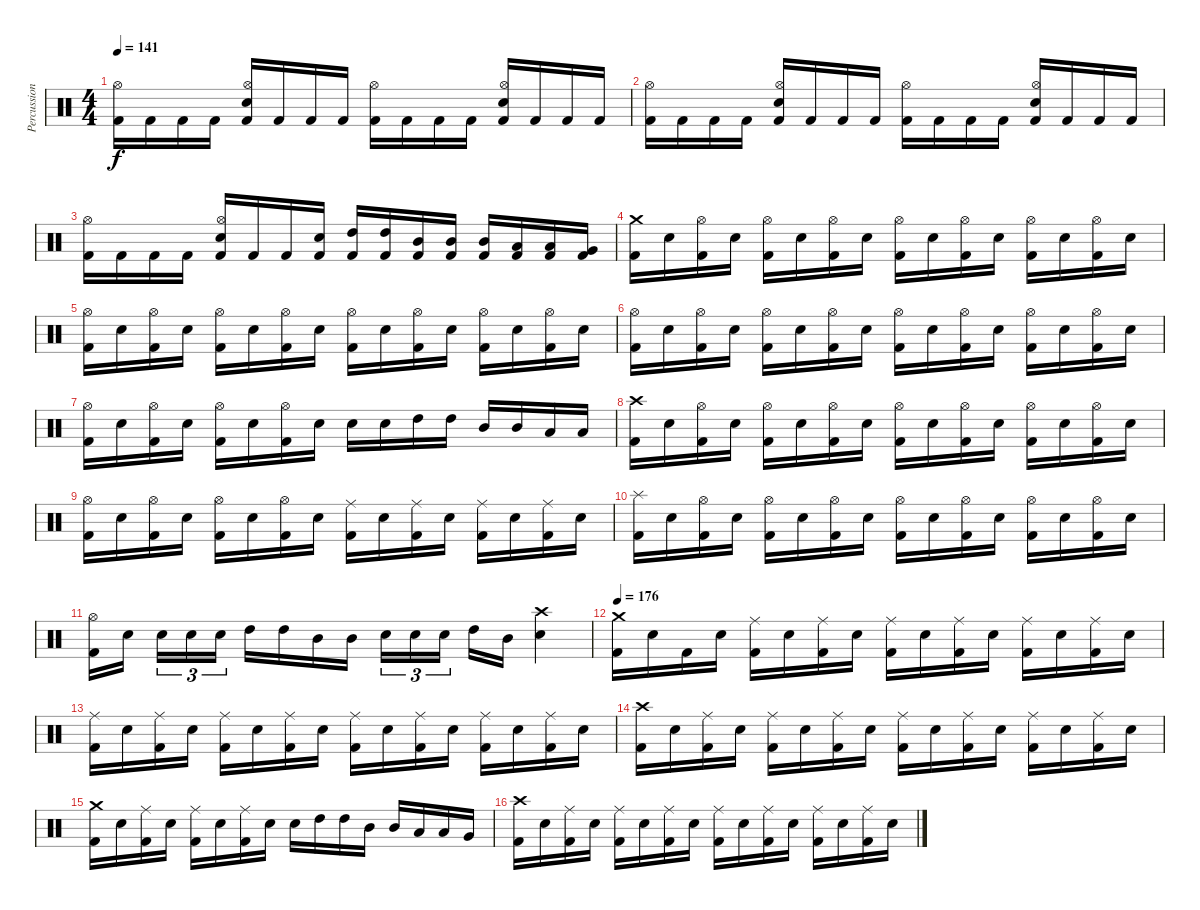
\track ("Percussion" "Percussion") {instrument percussion}
\staff {score}
\articulation defaults
\ts (4 4)
\tempo 141
\clef neutral
\ks c
("Kick (hit) 2" "Hi-Hat (open)").16{dy f} "Kick (hit) 2".16 "Kick (hit) 2".16 "Kick (hit) 2".16 ("Kick (hit) 2" "Electric Snare (hit)" "Hi-Hat (open)").16 "Kick (hit) 2".16 "Kick (hit) 2".16 "Kick (hit) 2".16 ("Kick (hit) 2" "Hi-Hat (open)").16 "Kick (hit) 2".16 "Kick (hit) 2".16 "Kick (hit) 2".16 ("Kick (hit) 2" "Electric Snare (hit)" "Hi-Hat (open)").16 "Kick (hit) 2".16 "Kick (hit) 2".16 "Kick (hit) 2".16 |
("Kick (hit) 2" "Hi-Hat (open)").16 "Kick (hit) 2".16 "Kick (hit) 2".16 "Kick (hit) 2".16 ("Kick (hit) 2" "Electric Snare (hit)" "Hi-Hat (open)").16 "Kick (hit) 2".16 "Kick (hit) 2".16 "Kick (hit) 2".16 ("Kick (hit) 2" "Hi-Hat (open)").16 "Kick (hit) 2".16 "Kick (hit) 2".16 "Kick (hit) 2".16 ("Kick (hit) 2" "Electric Snare (hit)" "Hi-Hat (open)").16 "Kick (hit) 2".16 "Kick (hit) 2".16 "Kick (hit) 2".16 |
("Kick (hit) 2" "Hi-Hat (open)").16 "Kick (hit) 2".16 "Kick (hit) 2".16 "Kick (hit) 2".16 ("Kick (hit) 2" "Electric Snare (hit)" "Hi-Hat (open)").16 "Kick (hit) 2".16 "Kick (hit) 2".16 ("Kick (hit) 2" "Electric Snare (hit)").16 ("Kick (hit) 2" "High Tom (hit)").16 ("Kick (hit) 2" "High Tom (hit)").16 ("Kick (hit) 2" "Mid Tom (hit)").16 ("Kick (hit) 2" "Mid Tom (hit)").16 ("Kick (hit) 2" "Mid Tom (hit)").16 ("Kick (hit) 2" "Low Tom (hit)").16 ("Kick (hit) 2" "Low Tom (hit)").16 ("Kick (hit) 2" "Very Low Tom (hit)").16 |
("Kick (hit) 2" "Crash medium (hit)").16 "Electric Snare (hit)".16 ("Kick (hit) 2" "Hi-Hat (open)").16 "Electric Snare (hit)".16 ("Kick (hit) 2" "Hi-Hat (open)").16 "Electric Snare (hit)".16 ("Kick (hit) 2" "Hi-Hat (open)").16 "Electric Snare (hit)".16 ("Kick (hit) 2" "Hi-Hat (open)").16 "Electric Snare (hit)".16 ("Kick (hit) 2" "Hi-Hat (open)").16 "Electric Snare (hit)".16 ("Kick (hit) 2" "Hi-Hat (open)").16 "Electric Snare (hit)".16 ("Kick (hit) 2" "Hi-Hat (open)").16 "Electric Snare (hit)".16 |
("Kick (hit) 2" "Hi-Hat (open)").16 "Electric Snare (hit)".16 ("Kick (hit) 2" "Hi-Hat (open)").16 "Electric Snare (hit)".16 ("Kick (hit) 2" "Hi-Hat (open)").16 "Electric Snare (hit)".16 ("Kick (hit) 2" "Hi-Hat (open)").16 "Electric Snare (hit)".16 ("Kick (hit) 2" "Hi-Hat (open)").16 "Electric Snare (hit)".16 ("Kick (hit) 2" "Hi-Hat (open)").16 "Electric Snare (hit)".16 ("Kick (hit) 2" "Hi-Hat (open)").16 "Electric Snare (hit)".16 ("Kick (hit) 2" "Hi-Hat (open)").16 "Electric Snare (hit)".16 |
("Kick (hit) 2" "Hi-Hat (open)").16 "Electric Snare (hit)".16 ("Kick (hit) 2" "Hi-Hat (open)").16 "Electric Snare (hit)".16 ("Kick (hit) 2" "Hi-Hat (open)").16 "Electric Snare (hit)".16 ("Kick (hit) 2" "Hi-Hat (open)").16 "Electric Snare (hit)".16 ("Kick (hit) 2" "Hi-Hat (open)").16 "Electric Snare (hit)".16 ("Kick (hit) 2" "Hi-Hat (open)").16 "Electric Snare (hit)".16 ("Kick (hit) 2" "Hi-Hat (open)").16 "Electric Snare (hit)".16 ("Kick (hit) 2" "Hi-Hat (open)").16 "Electric Snare (hit)".16 |
("Kick (hit) 2" "Hi-Hat (open)").16 "Electric Snare (hit)".16 ("Kick (hit) 2" "Hi-Hat (open)").16 "Electric Snare (hit)".16 ("Kick (hit) 2" "Hi-Hat (open)").16 "Electric Snare (hit)".16 ("Kick (hit) 2" "Hi-Hat (open)").16 "Electric Snare (hit)".16 "Electric Snare (hit)".16 "Electric Snare (hit)".16 "High Tom (hit)".16 "High Tom (hit)".16 "Mid Tom (hit)".16 "Mid Tom (hit)".16 "Low Tom (hit)".16 "Low Tom (hit)".16 |
("Kick (hit) 2" "Crash high (hit)").16 "Electric Snare (hit)".16 ("Kick (hit) 2" "Hi-Hat (open)").16 "Electric Snare (hit)".16 ("Kick (hit) 2" "Hi-Hat (open)").16 "Electric Snare (hit)".16 ("Kick (hit) 2" "Hi-Hat (open)").16 "Electric Snare (hit)".16 ("Kick (hit) 2" "Hi-Hat (open)").16 "Electric Snare (hit)".16 ("Kick (hit) 2" "Hi-Hat (open)").16 "Electric Snare (hit)".16 ("Kick (hit) 2" "Hi-Hat (open)").16 "Electric Snare (hit)".16 ("Kick (hit) 2" "Hi-Hat (open)").16 "Electric Snare (hit)".16 |
("Kick (hit) 2" "Hi-Hat (open)").16 "Electric Snare (hit)".16 ("Kick (hit) 2" "Hi-Hat (open)").16 "Electric Snare (hit)".16 ("Kick (hit) 2" "Hi-Hat (open)").16 "Electric Snare (hit)".16 ("Kick (hit) 2" "Hi-Hat (open)").16 "Electric Snare (hit)".16 ("Kick (hit) 2" "Ride (middle)").16 "Electric Snare (hit)".16 ("Kick (hit) 2" "Ride (middle)").16 "Electric Snare (hit)".16 ("Kick (hit) 2" "Ride (middle)").16 "Electric Snare (hit)".16 ("Kick (hit) 2" "Ride (middle)").16 "Electric Snare (hit)".16 |
("Kick (hit) 2" "Splash (hit)").16 "Electric Snare (hit)".16 ("Kick (hit) 2" "Hi-Hat (open)").16 "Electric Snare (hit)".16 ("Kick (hit) 2" "Hi-Hat (open)").16 "Electric Snare (hit)".16 ("Kick (hit) 2" "Hi-Hat (open)").16 "Electric Snare (hit)".16 ("Kick (hit) 2" "Hi-Hat (open)").16 "Electric Snare (hit)".16 ("Kick (hit) 2" "Hi-Hat (open)").16 "Electric Snare (hit)".16 ("Kick (hit) 2" "Hi-Hat (open)").16 "Electric Snare (hit)".16 ("Kick (hit) 2" "Hi-Hat (open)").16 "Electric Snare (hit)".16 |
("Kick (hit) 2" "Hi-Hat (open)").16 "Electric Snare (hit)".16 "Electric Snare (hit)".16{tu (3 2)} "Electric Snare (hit)".16{tu (3 2)} "Electric Snare (hit)".16{tu (3 2)} "High Tom (hit)".16 "High Tom (hit)".16 "Mid Tom (hit)".16 "Mid Tom (hit)".16 "Electric Snare (hit)".16{tu (3 2)} "Electric Snare (hit)".16{tu (3 2)} "Electric Snare (hit)".16{tu (3 2)} "High Tom (hit)".16 "Mid Tom (hit)".16 ("Electric Snare (hit)" "Crash high (hit)").4 |
\tempo 176
("Kick (hit) 2" "Crash medium (hit)").16 "Electric Snare (hit)".16 "Kick (hit) 2".16 "Electric Snare (hit)".16 ("Kick (hit) 2" "Ride (middle)").16 "Electric Snare (hit)".16 ("Kick (hit) 2" "Ride (middle)").16 "Electric Snare (hit)".16 ("Kick (hit) 2" "Ride (middle)").16 "Electric Snare (hit)".16 ("Kick (hit) 2" "Ride (middle)").16 "Electric Snare (hit)".16 ("Kick (hit) 2" "Ride (middle)").16 "Electric Snare (hit)".16 ("Kick (hit) 2" "Ride (middle)").16 "Electric Snare (hit)".16 |
("Kick (hit) 2" "Ride (middle)").16 "Electric Snare (hit)".16 ("Kick (hit) 2" "Ride (middle)").16 "Electric Snare (hit)".16 ("Kick (hit) 2" "Ride (middle)").16 "Electric Snare (hit)".16 ("Kick (hit) 2" "Ride (middle)").16 "Electric Snare (hit)".16 ("Kick (hit) 2" "Ride (middle)").16 "Electric Snare (hit)".16 ("Kick (hit) 2" "Ride (middle)").16 "Electric Snare (hit)".16 ("Kick (hit) 2" "Ride (middle)").16 "Electric Snare (hit)".16 ("Kick (hit) 2" "Ride (middle)").16 "Electric Snare (hit)".16 |
("Kick (hit) 2" "Crash high (hit)").16 "Electric Snare (hit)".16 ("Kick (hit) 2" "Ride (middle)").16 "Electric Snare (hit)".16 ("Kick (hit) 2" "Ride (middle)").16 "Electric Snare (hit)".16 ("Kick (hit) 2" "Ride (middle)").16 "Electric Snare (hit)".16 ("Kick (hit) 2" "Ride (middle)").16 "Electric Snare (hit)".16 ("Kick (hit) 2" "Ride (middle)").16 "Electric Snare (hit)".16 ("Kick (hit) 2" "Ride (middle)").16 "Electric Snare (hit)".16 ("Kick (hit) 2" "Ride (middle)").16 "Electric Snare (hit)".16 |
("Kick (hit) 2" "Crash medium (hit)").16 "Electric Snare (hit)".16 ("Kick (hit) 2" "Ride (middle)").16 "Electric Snare (hit)".16 ("Kick (hit) 2" "Ride (middle)").16 "Electric Snare (hit)".16 ("Kick (hit) 2" "Ride (middle)").16 "Electric Snare (hit)".16 "Electric Snare (hit)".16 "High Tom (hit)".16 "High Tom (hit)".16 "Mid Tom (hit)".16 "Mid Tom (hit)".16 "Low Tom (hit)".16 "Low Tom (hit)".16 "Very Low Tom (hit)".16 |
("Kick (hit) 2" "Crash high (hit)").16 "Electric Snare (hit)".16 ("Kick (hit) 2" "Ride (middle)").16 "Electric Snare (hit)".16 ("Kick (hit) 2" "Ride (middle)").16 "Electric Snare (hit)".16 ("Kick (hit) 2" "Ride (middle)").16 "Electric Snare (hit)".16 ("Kick (hit) 2" "Ride (middle)").16 "Electric Snare (hit)".16 ("Kick (hit) 2" "Ride (middle)").16 "Electric Snare (hit)".16 ("Kick (hit) 2" "Ride (middle)").16 "Electric Snare (hit)".16 ("Kick (hit) 2" "Ride (middle)").16 "Electric Snare (hit)".16
